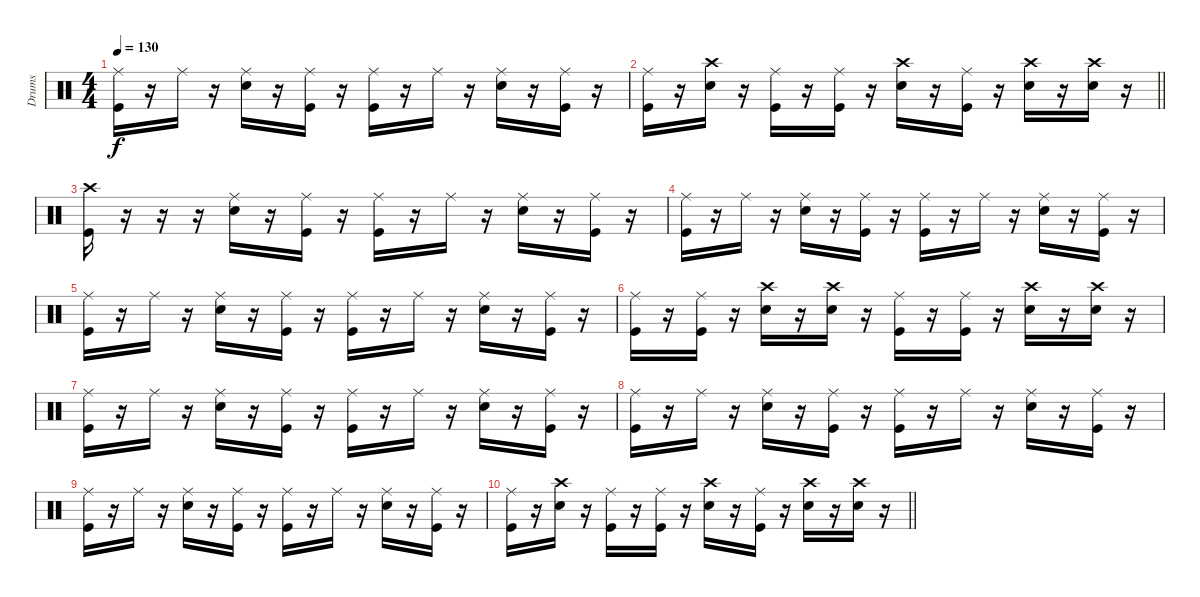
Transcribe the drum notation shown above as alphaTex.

\track ("Drums" "Drums") {instrument percussion}
\staff {score}
\articulation defaults
\ts (4 4)
\tempo 130
\clef neutral
\ks c
("Kick (hit)" "Ride (middle)").16{dy f} r.16 "Ride (middle)".16 r.16 ("Snare (hit) 2" "Ride (middle)").16 r.16 ("Kick (hit)" "Ride (middle)").16 r.16 ("Kick (hit)" "Ride (middle)").16 r.16 "Ride (middle)".16 r.16 ("Snare (hit) 2" "Ride (middle)").16 r.16 ("Kick (hit)" "Ride (middle)").16 r.16 |
\barLineRight lightlight
("Kick (hit)" "Ride (middle)").16 r.16 ("Snare (hit) 2" "Crash high (hit)").16 r.16 ("Kick (hit)" "Ride (middle)").16 r.16 ("Kick (hit)" "Ride (middle)").16 r.16 ("Snare (hit) 2" "Crash high (hit)").16 r.16 ("Kick (hit)" "Ride (middle)").16 r.16 ("Snare (hit) 2" "Crash high (hit)").16 r.16 ("Snare (hit) 2" "Crash high (hit)").16 r.16 |
\section ("" "")
("Kick (hit)" "Crash high (hit)").16 r.16 r.16 r.16 ("Snare (hit) 2" "Ride (middle)").16 r.16 ("Kick (hit)" "Ride (middle)").16 r.16 ("Kick (hit)" "Ride (middle)").16 r.16 "Ride (middle)".16 r.16 ("Snare (hit) 2" "Ride (middle)").16 r.16 ("Kick (hit)" "Ride (middle)").16 r.16 |
("Kick (hit)" "Ride (middle)").16 r.16 "Ride (middle)".16 r.16 ("Snare (hit) 2" "Ride (middle)").16 r.16 ("Kick (hit)" "Ride (middle)").16 r.16 ("Kick (hit)" "Ride (middle)").16 r.16 "Ride (middle)".16 r.16 ("Snare (hit) 2" "Ride (middle)").16 r.16 ("Kick (hit)" "Ride (middle)").16 r.16 |
("Kick (hit)" "Ride (middle)").16 r.16 "Ride (middle)".16 r.16 ("Snare (hit) 2" "Ride (middle)").16 r.16 ("Kick (hit)" "Ride (middle)").16 r.16 ("Kick (hit)" "Ride (middle)").16 r.16 "Ride (middle)".16 r.16 ("Snare (hit) 2" "Ride (middle)").16 r.16 ("Kick (hit)" "Ride (middle)").16 r.16 |
("Kick (hit)" "Ride (middle)").16 r.16 ("Kick (hit)" "Ride (middle)").16 r.16 ("Snare (hit) 2" "Crash high (hit)").16 r.16 ("Snare (hit) 2" "Crash high (hit)").16 r.16 ("Kick (hit)" "Ride (middle)").16 r.16 ("Kick (hit)" "Ride (middle)").16 r.16 ("Snare (hit) 2" "Crash high (hit)").16 r.16 ("Snare (hit) 2" "Crash high (hit)").16 r.16 |
("Kick (hit)" "Ride (middle)").16 r.16 "Ride (middle)".16 r.16 ("Snare (hit) 2" "Ride (middle)").16 r.16 ("Kick (hit)" "Ride (middle)").16 r.16 ("Kick (hit)" "Ride (middle)").16 r.16 "Ride (middle)".16 r.16 ("Snare (hit) 2" "Ride (middle)").16 r.16 ("Kick (hit)" "Ride (middle)").16 r.16 |
("Kick (hit)" "Ride (middle)").16 r.16 "Ride (middle)".16 r.16 ("Snare (hit) 2" "Ride (middle)").16 r.16 ("Kick (hit)" "Ride (middle)").16 r.16 ("Kick (hit)" "Ride (middle)").16 r.16 "Ride (middle)".16 r.16 ("Snare (hit) 2" "Ride (middle)").16 r.16 ("Kick (hit)" "Ride (middle)").16 r.16 |
("Kick (hit)" "Ride (middle)").16 r.16 "Ride (middle)".16 r.16 ("Snare (hit) 2" "Ride (middle)").16 r.16 ("Kick (hit)" "Ride (middle)").16 r.16 ("Kick (hit)" "Ride (middle)").16 r.16 "Ride (middle)".16 r.16 ("Snare (hit) 2" "Ride (middle)").16 r.16 ("Kick (hit)" "Ride (middle)").16 r.16 |
\barLineRight lightlight
("Kick (hit)" "Ride (middle)").16 r.16 ("Snare (hit) 2" "Crash high (hit)").16 r.16 ("Kick (hit)" "Ride (middle)").16 r.16 ("Kick (hit)" "Ride (middle)").16 r.16 ("Snare (hit) 2" "Crash high (hit)").16 r.16 ("Kick (hit)" "Ride (middle)").16 r.16 ("Snare (hit) 2" "Crash high (hit)").16 r.16 ("Snare (hit) 2" "Crash high (hit)").16 r.16
